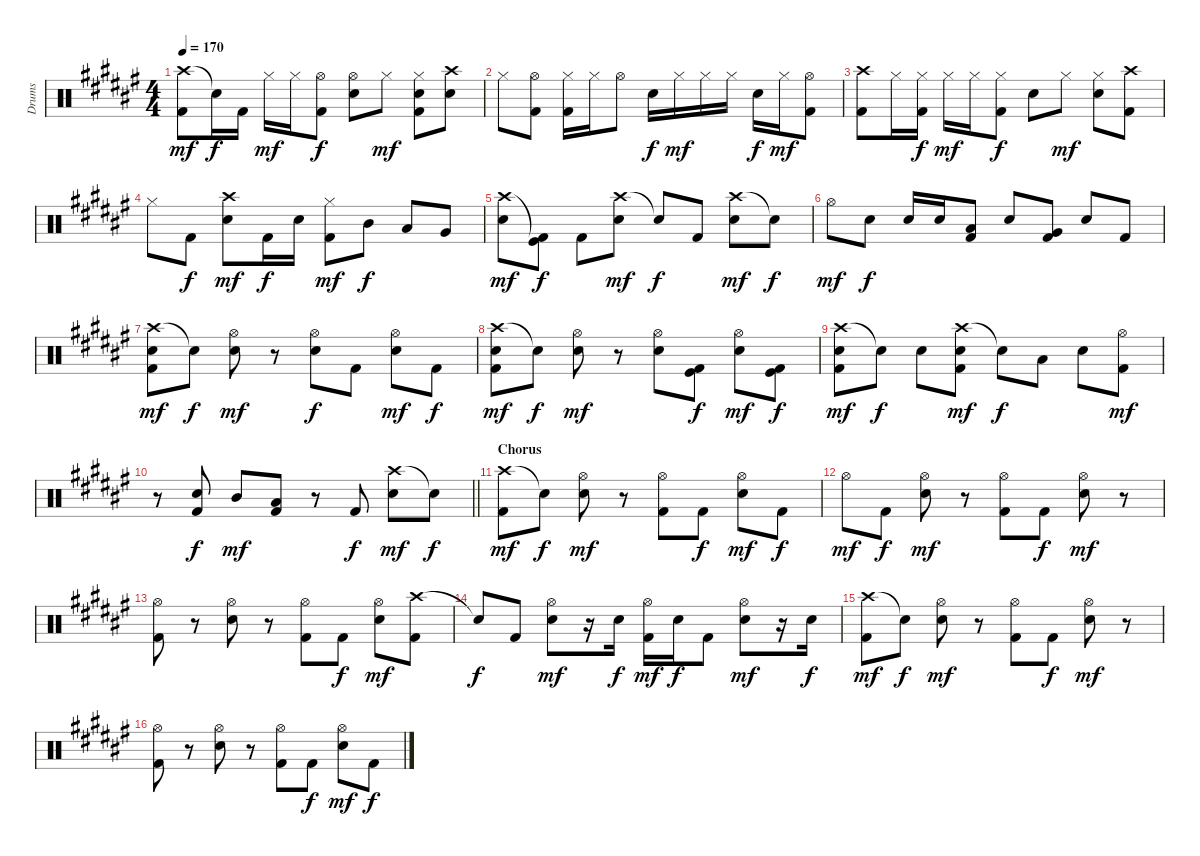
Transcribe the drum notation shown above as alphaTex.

\track ("Drums" "Drums") {instrument percussion}
\staff {score}
\articulation defaults
\ts (4 4)
\tempo 170
\clef neutral
\ks f#
("Crash high (hit)" "Kick (hit) 2").8{dy mf} "Snare (hit)"{t}.16{dy f} "Kick (hit) 2".16 "Hi-Hat (closed)".16{dy mf} "Hi-Hat (closed)".16 ("Hi-Hat (open)" "Kick (hit) 2").8{dy f} ("Hi-Hat (open)" "Snare (hit) 2").8 "Hi-Hat (closed)".8{dy mf} ("Hi-Hat (closed)" "Snare (hit) 2" "Kick (hit) 2").8 ("Crash high (hit)" "Snare (hit) 2").8 |
"Hi-Hat (closed)".8 ("Hi-Hat (open)" "Kick (hit) 2").8 ("Hi-Hat (closed)" "Kick (hit) 2").16 "Hi-Hat (closed)".16 "Hi-Hat (open)".8 "Snare (hit) 2".16{dy f} "Hi-Hat (closed)".16{dy mf} "Hi-Hat (closed)".16 "Hi-Hat (closed)".16 "Snare (hit) 2".16{dy f} "Hi-Hat (closed)".16{dy mf} ("Hi-Hat (open)" "Kick (hit) 2").8 |
("Crash high (hit)" "Kick (hit) 2").8 "Hi-Hat (closed)".16 ("Hi-Hat (closed)" "Kick (hit) 2").16{dy f} "Hi-Hat (closed)".16{dy mf} "Hi-Hat (closed)".16 ("Hi-Hat (closed)" "Kick (hit) 2").8{dy f} "Snare (hit) 2".8 "Hi-Hat (closed)".8{dy mf} ("Hi-Hat (closed)" "Snare (hit) 2").8 ("Crash high (hit)" "Kick (hit) 2").8 |
"Hi-Hat (closed)".8 "Kick (hit) 2".8{dy f} ("Crash high (hit)" "Snare (hit) 2").8{dy mf} "Kick (hit) 2".16{dy f} "Snare (hit) 2".16 ("Hi-Hat (closed)" "Kick (hit) 2").8{dy mf} "Mid Tom (hit)".8{dy f} "Low Tom (hit)".8 "Very Low Tom (hit)".8 |
("Crash high (hit)" "Snare (hit) 2").8{dy mf} ("Kick (hit)"{t} "Kick (hit) 2").8{dy f} "Kick (hit) 2".8 ("Crash high (hit)" "Snare (hit) 2").8{dy mf} "Snare (hit)"{t}.8{dy f} "Kick (hit) 2".8 ("Crash high (hit)" "Snare (hit) 2").8{dy mf} "Snare (hit)"{t}.8{dy f} |
"Hi-Hat (open)".8{dy mf} "Snare (hit) 2".8{dy f} "Snare (hit) 2".16 "Snare (hit) 2".16 ("Low Tom (hit)" "Kick (hit) 2").8 "Snare (hit) 2".8 ("Very Low Tom (hit)" "Kick (hit) 2").8 "Snare (hit) 2".8 "Kick (hit) 2".8 |
("Crash high (hit)" "Snare (hit) 2" "Kick (hit) 2").8{dy mf} "Snare (hit)"{t}.8{dy f} ("Hi-Hat (open)" "Snare (hit) 2").8{dy mf} r.8 ("Hi-Hat (open)" "Snare (hit) 2").8{dy f} "Kick (hit) 2".8 ("Hi-Hat (open)" "Snare (hit) 2").8{dy mf} "Kick (hit) 2".8{dy f} |
("Crash high (hit)" "Snare (hit) 2" "Kick (hit) 2").8{dy mf} "Snare (hit)"{t}.8{dy f} ("Hi-Hat (open)" "Snare (hit) 2").8{dy mf} r.8 ("Hi-Hat (open)" "Snare (hit) 2").8 ("Kick (hit)" "Kick (hit) 2").8{dy f} ("Hi-Hat (open)" "Snare (hit) 2").8{dy mf} ("Kick (hit)" "Kick (hit) 2").8{dy f} |
("Crash high (hit)" "Snare (hit) 2" "Kick (hit) 2").8{dy mf} "Snare (hit)"{t}.8{dy f} "Snare (hit) 2".8 ("Crash high (hit)" "Snare (hit) 2" "Kick (hit) 2").8{dy mf} "Snare (hit)"{t}.8{dy f} "Low Tom (hit)".8 "Snare (hit) 2".8 ("Hi-Hat (open)" "Kick (hit) 2").8{dy mf} |
\barLineRight lightlight
r.8 ("Snare (hit) 2" "Kick (hit) 2").8{dy f} "Mid Tom (hit)".8{dy mf} ("Low Tom (hit)" "Kick (hit) 2").8 r.8 "Kick (hit) 2".8{dy f} ("Crash high (hit)" "Snare (hit) 2").8{dy mf} "Snare (hit)"{t}.8{dy f} |
\section ("" "Chorus")
("Crash high (hit)" "Kick (hit) 2").8{dy mf} "Snare (hit)"{t}.8{dy f} ("Hi-Hat (open)" "Snare (hit) 2").8{dy mf} r.8 ("Hi-Hat (open)" "Kick (hit) 2").8 "Kick (hit) 2".8{dy f} ("Hi-Hat (open)" "Snare (hit) 2").8{dy mf} "Kick (hit) 2".8{dy f} |
"Hi-Hat (open)".8{dy mf} "Kick (hit) 2".8{dy f} ("Hi-Hat (open)" "Snare (hit) 2").8{dy mf} r.8 ("Hi-Hat (open)" "Kick (hit) 2").8 "Kick (hit) 2".8{dy f} ("Hi-Hat (open)" "Snare (hit) 2").8{dy mf} r.8 |
("Hi-Hat (open)" "Kick (hit) 2").8 r.8 ("Hi-Hat (open)" "Snare (hit) 2").8 r.8 ("Hi-Hat (open)" "Kick (hit) 2").8 "Kick (hit) 2".8{dy f} ("Hi-Hat (open)" "Snare (hit) 2").8{dy mf} ("Crash high (hit)" "Kick (hit) 2").8 |
"Snare (hit)"{t}.8{dy f} "Kick (hit) 2".8 ("Hi-Hat (open)" "Snare (hit) 2").8{dy mf} r.16 "Snare (hit) 2".16{dy f} ("Hi-Hat (open)" "Kick (hit) 2").16{dy mf} "Snare (hit) 2".16{dy f} "Kick (hit) 2".8 ("Hi-Hat (open)" "Snare (hit) 2").8{dy mf} r.16 "Snare (hit) 2".16{dy f} |
("Crash high (hit)" "Kick (hit) 2").8{dy mf} "Snare (hit)"{t}.8{dy f} ("Hi-Hat (open)" "Snare (hit) 2").8{dy mf} r.8 ("Hi-Hat (open)" "Kick (hit) 2").8 "Kick (hit) 2".8{dy f} ("Hi-Hat (open)" "Snare (hit) 2").8{dy mf} r.8 |
("Hi-Hat (open)" "Kick (hit) 2").8 r.8 ("Hi-Hat (open)" "Snare (hit) 2").8 r.8 ("Hi-Hat (open)" "Kick (hit) 2").8 "Kick (hit) 2".8{dy f} ("Hi-Hat (open)" "Snare (hit) 2").8{dy mf} "Kick (hit) 2".8{dy f}
